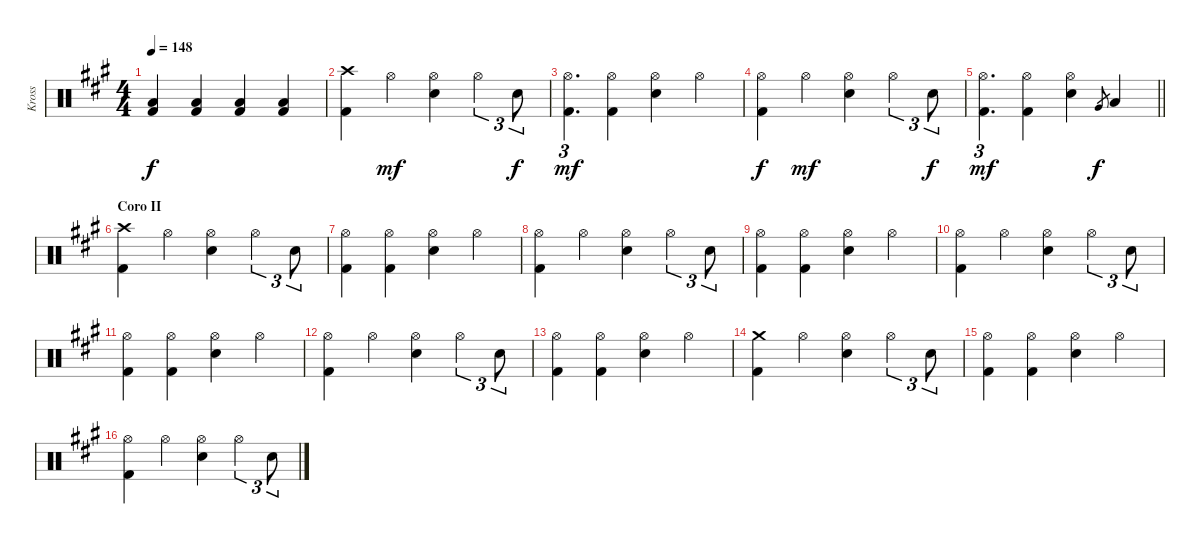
\track ("Kross" "Kross") {instrument percussion}
\staff {score}
\articulation defaults
\ts (4 4)
\tempo 148
\clef neutral
\ks a
("Low Floor Tom (hit)" "Kick (hit) 2").4{dy f} ("Low Floor Tom (hit)" "Kick (hit) 2").4 ("Low Floor Tom (hit)" "Kick (hit) 2").4 ("Low Floor Tom (hit)" "Kick (hit) 2").4 |
("Crash high (hit)" "Kick (hit) 2").4 "Hi-Hat (open)".4{dy mf} ("Hi-Hat (open)" "Electric Snare (hit)").4 "Hi-Hat (open)".4{tu (3 2)} "Electric Snare (hit)".8{tu (3 2) dy f} |
("Hi-Hat (open)" "Kick (hit) 2").4{d tu (3 2) dy mf} ("Hi-Hat (open)" "Kick (hit) 2").4 ("Hi-Hat (open)" "Electric Snare (hit)").4 "Hi-Hat (open)".4 |
("Hi-Hat (open)" "Kick (hit) 2").4{dy f} "Hi-Hat (open)".4{dy mf} ("Hi-Hat (open)" "Electric Snare (hit)").4 "Hi-Hat (open)".4{tu (3 2)} "Electric Snare (hit)".8{tu (3 2) dy f} |
\barLineRight lightlight
("Hi-Hat (open)" "Kick (hit) 2").4{d tu (3 2) dy mf} ("Hi-Hat (open)" "Kick (hit) 2").4 ("Hi-Hat (open)" "Electric Snare (hit)").4 "Very Low Tom (hit)".8{gr dy f} "Low Floor Tom (hit)".4 |
\section ("" "Coro II")
("Crash high (hit)" "Kick (hit) 2").4 "Hi-Hat (open)".4 ("Hi-Hat (open)" "Electric Snare (hit)").4 "Hi-Hat (open)".4{tu (3 2)} "Electric Snare (hit)".8{tu (3 2)} |
("Hi-Hat (open)" "Kick (hit) 2").4 ("Hi-Hat (open)" "Kick (hit) 2").4 ("Hi-Hat (open)" "Electric Snare (hit)").4 "Hi-Hat (open)".4 |
("Hi-Hat (open)" "Kick (hit) 2").4 "Hi-Hat (open)".4 ("Hi-Hat (open)" "Electric Snare (hit)").4 "Hi-Hat (open)".4{tu (3 2)} "Electric Snare (hit)".8{tu (3 2)} |
("Hi-Hat (open)" "Kick (hit) 2").4 ("Hi-Hat (open)" "Kick (hit) 2").4 ("Hi-Hat (open)" "Electric Snare (hit)").4 "Hi-Hat (open)".4 |
("Hi-Hat (open)" "Kick (hit) 2").4 "Hi-Hat (open)".4 ("Hi-Hat (open)" "Electric Snare (hit)").4 "Hi-Hat (open)".4{tu (3 2)} "Electric Snare (hit)".8{tu (3 2)} |
("Hi-Hat (open)" "Kick (hit) 2").4 ("Hi-Hat (open)" "Kick (hit) 2").4 ("Hi-Hat (open)" "Electric Snare (hit)").4 "Hi-Hat (open)".4 |
("Hi-Hat (open)" "Kick (hit) 2").4 "Hi-Hat (open)".4 ("Hi-Hat (open)" "Electric Snare (hit)").4 "Hi-Hat (open)".4{tu (3 2)} "Electric Snare (hit)".8{tu (3 2)} |
("Hi-Hat (open)" "Kick (hit) 2").4 ("Hi-Hat (open)" "Kick (hit) 2").4 ("Hi-Hat (open)" "Electric Snare (hit)").4 "Hi-Hat (open)".4 |
("Crash medium (hit)" "Kick (hit) 2").4 "Hi-Hat (open)".4 ("Hi-Hat (open)" "Electric Snare (hit)").4 "Hi-Hat (open)".4{tu (3 2)} "Electric Snare (hit)".8{tu (3 2)} |
("Hi-Hat (open)" "Kick (hit) 2").4 ("Hi-Hat (open)" "Kick (hit) 2").4 ("Hi-Hat (open)" "Electric Snare (hit)").4 "Hi-Hat (open)".4 |
("Hi-Hat (open)" "Kick (hit) 2").4 "Hi-Hat (open)".4 ("Hi-Hat (open)" "Electric Snare (hit)").4 "Hi-Hat (open)".4{tu (3 2)} "Electric Snare (hit)".8{tu (3 2)}
